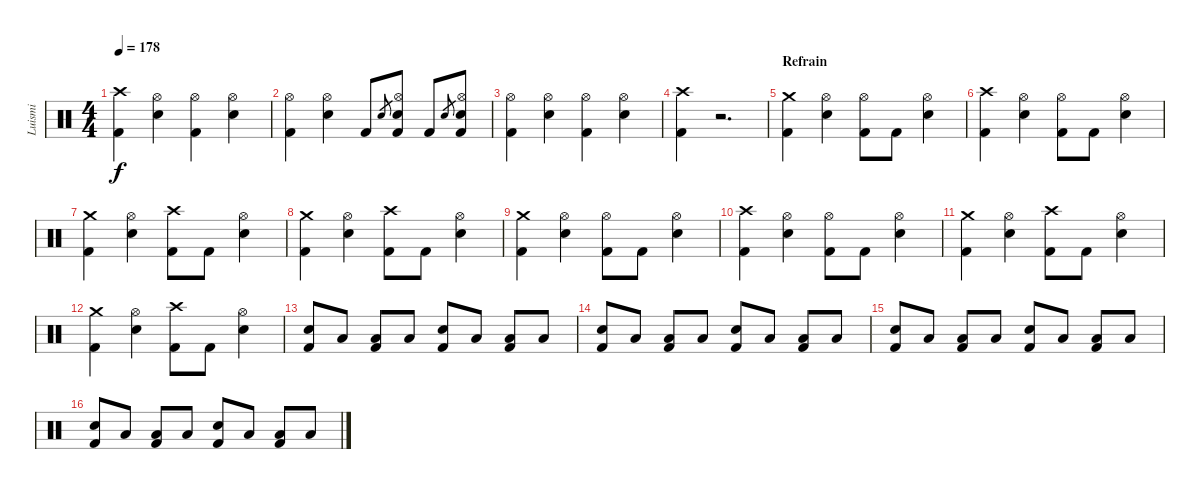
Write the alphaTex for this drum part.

\track ("Luismi" "Luismi") {instrument percussion}
\staff {score}
\articulation defaults
\ts (4 4)
\tempo 178
\clef neutral
\ks c
("Crash high (hit)" "Kick (hit) 2").4{dy f} ("Hi-Hat (open)" "Snare (hit) 2").4 ("Hi-Hat (open)" "Kick (hit) 2").4 ("Hi-Hat (open)" "Snare (hit) 2").4 |
("Hi-Hat (open)" "Kick (hit) 2").4 ("Hi-Hat (open)" "Snare (hit) 2").4 "Kick (hit) 2".8 "Snare (hit) 2".8{gr} ("Hi-Hat (open)" "Snare (hit) 2" "Kick (hit) 2").8 "Kick (hit) 2".8 "Snare (hit) 2".8{gr} ("Hi-Hat (open)" "Snare (hit) 2" "Kick (hit) 2").8 |
("Hi-Hat (open)" "Kick (hit) 2").4 ("Hi-Hat (open)" "Snare (hit) 2").4 ("Hi-Hat (open)" "Kick (hit) 2").4 ("Hi-Hat (open)" "Snare (hit) 2").4 |
("Crash high (hit)" "Kick (hit) 2").4 r.2{d} |
\section ("" "Refrain")
("Crash medium (hit)" "Kick (hit) 2").4 ("Hi-Hat (open)" "Snare (hit) 2").4 ("Hi-Hat (open)" "Kick (hit) 2").8 "Kick (hit) 2".8 ("Hi-Hat (open)" "Snare (hit) 2").4 |
("Crash high (hit)" "Kick (hit) 2").4 ("Hi-Hat (open)" "Snare (hit) 2").4 ("Hi-Hat (open)" "Kick (hit) 2").8 "Kick (hit) 2".8 ("Hi-Hat (open)" "Snare (hit) 2").4 |
("Crash medium (hit)" "Kick (hit) 2").4 ("Hi-Hat (open)" "Snare (hit) 2").4 ("Crash high (hit)" "Kick (hit) 2").8 "Kick (hit) 2".8 ("Hi-Hat (open)" "Snare (hit) 2").4 |
("Crash medium (hit)" "Kick (hit) 2").4 ("Hi-Hat (open)" "Snare (hit) 2").4 ("Crash high (hit)" "Kick (hit) 2").8 "Kick (hit) 2".8 ("Hi-Hat (open)" "Snare (hit) 2").4 |
("Crash medium (hit)" "Kick (hit) 2").4 ("Hi-Hat (open)" "Snare (hit) 2").4 ("Hi-Hat (open)" "Kick (hit) 2").8 "Kick (hit) 2".8 ("Hi-Hat (open)" "Snare (hit) 2").4 |
("Crash high (hit)" "Kick (hit) 2").4 ("Hi-Hat (open)" "Snare (hit) 2").4 ("Hi-Hat (open)" "Kick (hit) 2").8 "Kick (hit) 2".8 ("Hi-Hat (open)" "Snare (hit) 2").4 |
("Crash medium (hit)" "Kick (hit) 2").4 ("Hi-Hat (open)" "Snare (hit) 2").4 ("Crash high (hit)" "Kick (hit) 2").8 "Kick (hit) 2".8 ("Hi-Hat (open)" "Snare (hit) 2").4 |
("Crash medium (hit)" "Kick (hit) 2").4 ("Hi-Hat (open)" "Snare (hit) 2").4 ("Crash high (hit)" "Kick (hit) 2").8 "Kick (hit) 2".8 ("Hi-Hat (open)" "Snare (hit) 2").4 |
("Snare (hit) 2" "Kick (hit) 2").8 "Low Tom (hit)".8 ("Low Floor Tom (hit)" "Kick (hit) 2").8 "Low Floor Tom (hit)".8 ("Snare (hit) 2" "Kick (hit) 2").8 "Low Tom (hit)".8 ("Low Floor Tom (hit)" "Kick (hit) 2").8 "Low Floor Tom (hit)".8 |
("Snare (hit) 2" "Kick (hit) 2").8 "Low Tom (hit)".8 ("Low Floor Tom (hit)" "Kick (hit) 2").8 "Low Floor Tom (hit)".8 ("Snare (hit) 2" "Kick (hit) 2").8 "Low Tom (hit)".8 ("Low Floor Tom (hit)" "Kick (hit) 2").8 "Low Floor Tom (hit)".8 |
("Snare (hit) 2" "Kick (hit) 2").8 "Low Tom (hit)".8 ("Low Floor Tom (hit)" "Kick (hit) 2").8 "Low Floor Tom (hit)".8 ("Snare (hit) 2" "Kick (hit) 2").8 "Low Tom (hit)".8 ("Low Floor Tom (hit)" "Kick (hit) 2").8 "Low Floor Tom (hit)".8 |
("Snare (hit) 2" "Kick (hit) 2").8 "Low Tom (hit)".8 ("Low Floor Tom (hit)" "Kick (hit) 2").8 "Low Floor Tom (hit)".8 ("Snare (hit) 2" "Kick (hit) 2").8 "Low Tom (hit)".8 ("Low Floor Tom (hit)" "Kick (hit) 2").8 "Low Floor Tom (hit)".8
